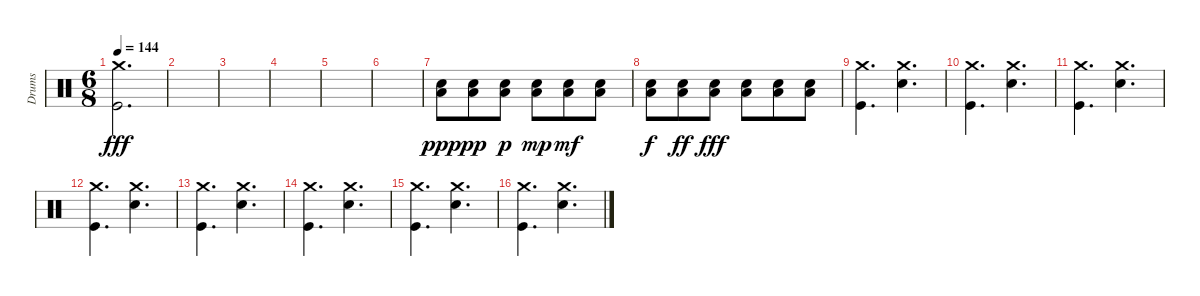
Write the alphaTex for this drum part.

\track ("Drums" "Drums") {instrument percussion}
\staff {score}
\articulation defaults
\ts (6 8)
\tempo 144
\clef neutral
\ks c
("Crash medium (hit)" "Kick (hit)").2{d dy fff} |
|
|
|
|
|
("Low Tom (hit)" "Snare (hit) 2").8{dy ppp} ("Low Tom (hit)" "Snare (hit) 2").8{dy pp} ("Low Tom (hit)" "Snare (hit) 2").8{dy p} ("Low Tom (hit)" "Snare (hit) 2").8{dy mp} ("Low Tom (hit)" "Snare (hit) 2").8{dy mf} ("Low Tom (hit)" "Snare (hit) 2").8 |
("Low Tom (hit)" "Snare (hit) 2").8{dy f} ("Low Tom (hit)" "Snare (hit) 2").8{dy ff} ("Low Tom (hit)" "Snare (hit) 2").8{dy fff} ("Low Tom (hit)" "Snare (hit) 2").8 ("Low Tom (hit)" "Snare (hit) 2").8 ("Low Tom (hit)" "Snare (hit) 2").8 |
("Crash medium (hit)" "Kick (hit)").4{d} ("Crash medium (hit)" "Snare (hit) 2").4{d} |
("Crash medium (hit)" "Kick (hit)").4{d} ("Crash medium (hit)" "Snare (hit) 2").4{d} |
("Crash medium (hit)" "Kick (hit)").4{d} ("Crash medium (hit)" "Snare (hit) 2").4{d} |
("Crash medium (hit)" "Kick (hit)").4{d} ("Crash medium (hit)" "Snare (hit) 2").4{d} |
("Crash medium (hit)" "Kick (hit)").4{d} ("Crash medium (hit)" "Snare (hit) 2").4{d} |
("Crash medium (hit)" "Kick (hit)").4{d} ("Crash medium (hit)" "Snare (hit) 2").4{d} |
("Crash medium (hit)" "Kick (hit)").4{d} ("Crash medium (hit)" "Snare (hit) 2").4{d} |
("Crash medium (hit)" "Kick (hit)").4{d} ("Crash medium (hit)" "Snare (hit) 2").4{d}
